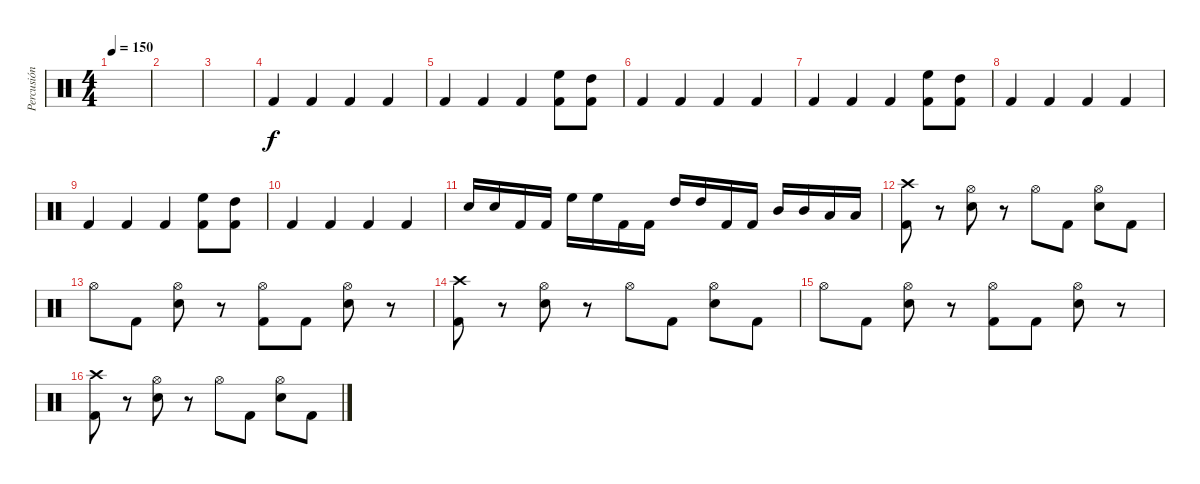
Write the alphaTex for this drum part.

\track ("Percusión" "Percusión") {instrument percussion}
\staff {score}
\articulation defaults
\ts (4 4)
\tempo 150
\clef neutral
\ks c
|
|
|
"Kick (hit) 2".4 "Kick (hit) 2".4 "Kick (hit) 2".4 "Kick (hit) 2".4 |
"Kick (hit) 2".4 "Kick (hit) 2".4 "Kick (hit) 2".4 ("High Floor Tom (hit)" "Kick (hit) 2").8 ("High Tom (hit)" "Kick (hit) 2").8 |
"Kick (hit) 2".4 "Kick (hit) 2".4 "Kick (hit) 2".4 "Kick (hit) 2".4 |
"Kick (hit) 2".4 "Kick (hit) 2".4 "Kick (hit) 2".4 ("High Floor Tom (hit)" "Kick (hit) 2").8 ("High Tom (hit)" "Kick (hit) 2").8 |
"Kick (hit) 2".4 "Kick (hit) 2".4 "Kick (hit) 2".4 "Kick (hit) 2".4 |
"Kick (hit) 2".4 "Kick (hit) 2".4 "Kick (hit) 2".4 ("High Floor Tom (hit)" "Kick (hit) 2").8 ("High Tom (hit)" "Kick (hit) 2").8 |
"Kick (hit) 2".4 "Kick (hit) 2".4 "Kick (hit) 2".4 "Kick (hit) 2".4 |
"Electric Snare (hit)".16 "Electric Snare (hit)".16 "Kick (hit) 2".16 "Kick (hit) 2".16 "High Floor Tom (hit)".16 "High Floor Tom (hit)".16 "Kick (hit) 2".16 "Kick (hit) 2".16 "High Tom (hit)".16 "High Tom (hit)".16 "Kick (hit) 2".16 "Kick (hit) 2".16 "Mid Tom (hit)".16 "Mid Tom (hit)".16 "Low Tom (hit)".16 "Low Tom (hit)".16 |
("Crash high (hit)" "Kick (hit) 2").8 r.8 ("Hi-Hat (open)" "Electric Snare (hit)").8 r.8 "Hi-Hat (open)".8 "Kick (hit) 2".8 ("Hi-Hat (open)" "Electric Snare (hit)").8 "Kick (hit) 2".8 |
"Hi-Hat (open)".8 "Kick (hit) 2".8 ("Hi-Hat (open)" "Electric Snare (hit)").8 r.8 ("Hi-Hat (open)" "Kick (hit) 2").8 "Kick (hit) 2".8 ("Hi-Hat (open)" "Electric Snare (hit)").8 r.8 |
("Crash high (hit)" "Kick (hit) 2").8 r.8 ("Hi-Hat (open)" "Electric Snare (hit)").8 r.8 "Hi-Hat (open)".8 "Kick (hit) 2".8 ("Hi-Hat (open)" "Electric Snare (hit)").8 "Kick (hit) 2".8 |
"Hi-Hat (open)".8 "Kick (hit) 2".8 ("Hi-Hat (open)" "Electric Snare (hit)").8 r.8 ("Hi-Hat (open)" "Kick (hit) 2").8 "Kick (hit) 2".8 ("Hi-Hat (open)" "Electric Snare (hit)").8 r.8 |
("Crash high (hit)" "Kick (hit) 2").8 r.8 ("Hi-Hat (open)" "Electric Snare (hit)").8 r.8 "Hi-Hat (open)".8 "Kick (hit) 2".8 ("Hi-Hat (open)" "Electric Snare (hit)").8 "Kick (hit) 2".8
